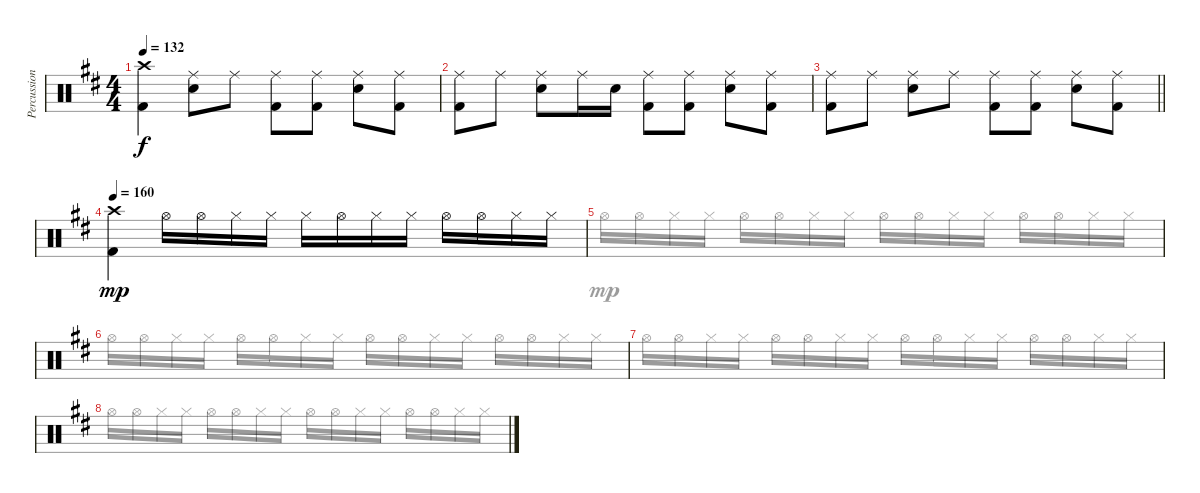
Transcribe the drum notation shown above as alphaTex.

\track ("Percussion" "Percussion") {instrument percussion}
\staff {score}
\articulation defaults
\voice
\ts (4 4)
\tempo 132
\clef neutral
\ks d
("Crash high (hit)" "Kick (hit) 2").4{dy f} ("Ride (middle)" "Snare (hit) 2").8 "Ride (middle)".8 ("Ride (middle)" "Kick (hit) 2").8 ("Ride (middle)" "Kick (hit) 2").8 ("Ride (middle)" "Snare (hit) 2").8 ("Ride (middle)" "Kick (hit) 2").8 |
("Ride (middle)" "Kick (hit) 2").8 "Ride (middle)".8 ("Ride (middle)" "Snare (hit) 2").8 "Ride (middle)".16 "Snare (hit) 2".16 ("Ride (middle)" "Kick (hit) 2").8 ("Ride (middle)" "Kick (hit) 2").8 ("Ride (middle)" "Snare (hit) 2").8 ("Ride (middle)" "Kick (hit) 2").8 |
\barLineRight lightlight
("Ride (middle)" "Kick (hit) 2").8 "Ride (middle)".8 ("Ride (middle)" "Snare (hit) 2").8 "Ride (middle)".8 ("Ride (middle)" "Kick (hit) 2").8 ("Ride (middle)" "Kick (hit) 2").8 ("Ride (middle)" "Snare (hit) 2").8 ("Ride (middle)" "Kick (hit) 2").8 |
\tempo 160
("Crash high (hit)" "Kick (hit) 2").4{dy mp} "Hi-Hat (open)".16 "Hi-Hat (open)".16 "Hi-Hat (closed)".16 "Hi-Hat (closed)".16 "Hi-Hat (closed)".16 "Hi-Hat (open)".16 "Hi-Hat (closed)".16 "Hi-Hat (closed)".16 "Hi-Hat (open)".16 "Hi-Hat (open)".16 "Hi-Hat (closed)".16 "Hi-Hat (closed)".16 |
|
|
|
\voice
\clef neutral
\ottava regular
\simile none
\ks d
|
|
\barLineRight lightlight
|
|
"Hi-Hat (open)".16 "Hi-Hat (open)".16 "Hi-Hat (closed)".16 "Hi-Hat (closed)".16 "Hi-Hat (open)".16 "Hi-Hat (open)".16 "Hi-Hat (closed)".16 "Hi-Hat (closed)".16 "Hi-Hat (open)".16 "Hi-Hat (open)".16 "Hi-Hat (closed)".16 "Hi-Hat (closed)".16 "Hi-Hat (open)".16 "Hi-Hat (open)".16 "Hi-Hat (closed)".16 "Hi-Hat (closed)".16 |
"Hi-Hat (open)".16 "Hi-Hat (open)".16 "Hi-Hat (closed)".16 "Hi-Hat (closed)".16 "Hi-Hat (open)".16 "Hi-Hat (open)".16 "Hi-Hat (closed)".16 "Hi-Hat (closed)".16 "Hi-Hat (open)".16 "Hi-Hat (open)".16 "Hi-Hat (closed)".16 "Hi-Hat (closed)".16 "Hi-Hat (open)".16 "Hi-Hat (open)".16 "Hi-Hat (closed)".16 "Hi-Hat (closed)".16 |
"Hi-Hat (open)".16 "Hi-Hat (open)".16 "Hi-Hat (closed)".16 "Hi-Hat (closed)".16 "Hi-Hat (open)".16 "Hi-Hat (open)".16 "Hi-Hat (closed)".16 "Hi-Hat (closed)".16 "Hi-Hat (open)".16 "Hi-Hat (open)".16 "Hi-Hat (closed)".16 "Hi-Hat (closed)".16 "Hi-Hat (open)".16 "Hi-Hat (open)".16 "Hi-Hat (closed)".16 "Hi-Hat (closed)".16 |
"Hi-Hat (open)".16 "Hi-Hat (open)".16 "Hi-Hat (closed)".16 "Hi-Hat (closed)".16 "Hi-Hat (open)".16 "Hi-Hat (open)".16 "Hi-Hat (closed)".16 "Hi-Hat (closed)".16 "Hi-Hat (open)".16 "Hi-Hat (open)".16 "Hi-Hat (closed)".16 "Hi-Hat (closed)".16 "Hi-Hat (open)".16 "Hi-Hat (open)".16 "Hi-Hat (closed)".16 "Hi-Hat (closed)".16
